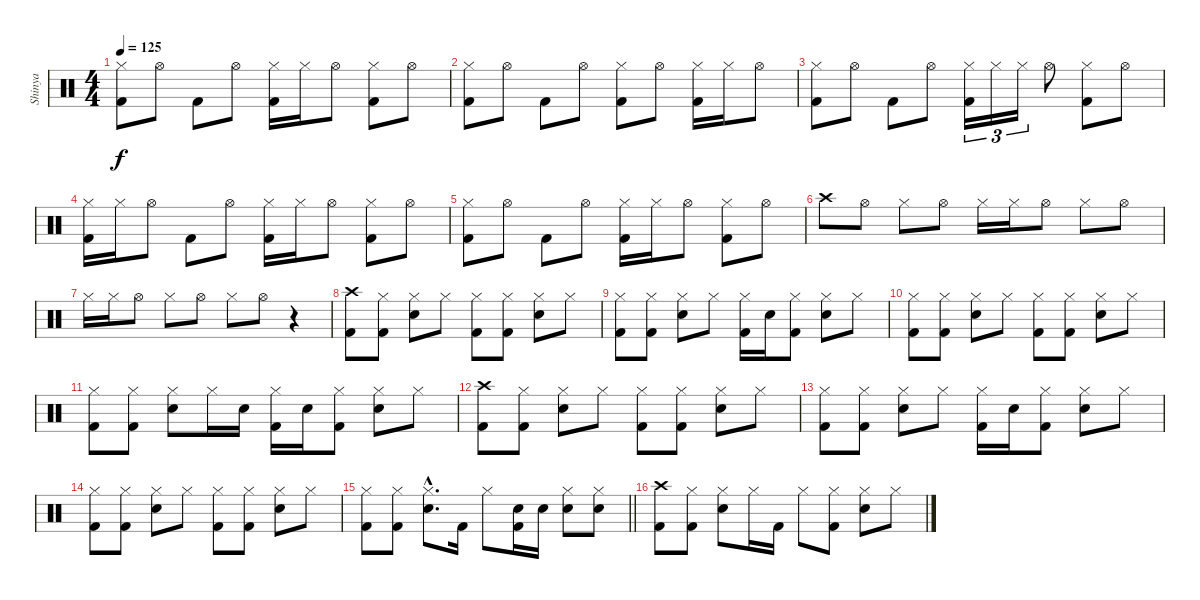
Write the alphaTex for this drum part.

\track ("Shinya" "Shinya") {instrument percussion}
\staff {score}
\articulation defaults
\ts (4 4)
\tempo 125
\clef neutral
\ks c
("Hi-Hat (closed)" "Kick (hit) 2").8{dy f} "Hi-Hat (open)".8 "Kick (hit) 2".8 "Hi-Hat (open)".8 ("Hi-Hat (closed)" "Kick (hit) 2").16 "Hi-Hat (closed)".16 "Hi-Hat (open)".8 ("Hi-Hat (closed)" "Kick (hit) 2").8 "Hi-Hat (open)".8 |
("Hi-Hat (closed)" "Kick (hit) 2").8 "Hi-Hat (open)".8 "Kick (hit) 2".8 "Hi-Hat (open)".8 ("Hi-Hat (closed)" "Kick (hit) 2").8 "Hi-Hat (open)".8 ("Hi-Hat (closed)" "Kick (hit) 2").16 "Hi-Hat (closed)".16 "Hi-Hat (open)".8 |
("Hi-Hat (closed)" "Kick (hit) 2").8 "Hi-Hat (open)".8 "Kick (hit) 2".8 "Hi-Hat (open)".8 ("Hi-Hat (closed)" "Kick (hit) 2").16{tu (3 2)} "Hi-Hat (closed)".16{tu (3 2)} "Hi-Hat (closed)".16{tu (3 2)} "Hi-Hat (open)".8 ("Hi-Hat (closed)" "Kick (hit) 2").8 "Hi-Hat (open)".8 |
("Hi-Hat (closed)" "Kick (hit) 2").16 "Hi-Hat (closed)".16 "Hi-Hat (open)".8 "Kick (hit) 2".8 "Hi-Hat (open)".8 ("Hi-Hat (closed)" "Kick (hit) 2").16 "Hi-Hat (closed)".16 "Hi-Hat (open)".8 ("Hi-Hat (closed)" "Kick (hit) 2").8 "Hi-Hat (open)".8 |
("Hi-Hat (closed)" "Kick (hit) 2").8 "Hi-Hat (open)".8 "Kick (hit) 2".8 "Hi-Hat (open)".8 ("Hi-Hat (closed)" "Kick (hit) 2").16 "Hi-Hat (closed)".16 "Hi-Hat (open)".8 ("Hi-Hat (closed)" "Kick (hit) 2").8 "Hi-Hat (open)".8 |
"Crash high (hit)".8 "Hi-Hat (open)".8 "Hi-Hat (closed)".8 "Hi-Hat (open)".8 "Hi-Hat (closed)".16 "Hi-Hat (closed)".16 "Hi-Hat (open)".8 "Hi-Hat (closed)".8 "Hi-Hat (open)".8 |
"Hi-Hat (closed)".16 "Hi-Hat (closed)".16 "Hi-Hat (open)".8 "Hi-Hat (closed)".8 "Hi-Hat (open)".8 "Hi-Hat (closed)".8 "Hi-Hat (open)".8 r.4 |
("Crash high (hit)" "Kick (hit) 2").8 ("Hi-Hat (closed)" "Kick (hit) 2").8 ("Hi-Hat (closed)" "Snare (hit) 2").8 "Hi-Hat (closed)".8 ("Hi-Hat (closed)" "Kick (hit) 2").8 ("Hi-Hat (closed)" "Kick (hit) 2").8 ("Hi-Hat (closed)" "Snare (hit) 2").8 "Hi-Hat (closed)".8 |
("Hi-Hat (closed)" "Kick (hit) 2").8 ("Hi-Hat (closed)" "Kick (hit) 2").8 ("Hi-Hat (closed)" "Snare (hit) 2").8 "Hi-Hat (closed)".8 ("Hi-Hat (closed)" "Kick (hit) 2").16 "Snare (hit) 2".16 ("Hi-Hat (closed)" "Kick (hit) 2").8 ("Hi-Hat (closed)" "Snare (hit) 2").8 "Hi-Hat (closed)".8 |
("Hi-Hat (closed)" "Kick (hit) 2").8 ("Hi-Hat (closed)" "Kick (hit) 2").8 ("Hi-Hat (closed)" "Snare (hit) 2").8 "Hi-Hat (closed)".8 ("Hi-Hat (closed)" "Kick (hit) 2").8 ("Hi-Hat (closed)" "Kick (hit) 2").8 ("Hi-Hat (closed)" "Snare (hit) 2").8 "Hi-Hat (closed)".8 |
("Hi-Hat (closed)" "Kick (hit) 2").8 ("Hi-Hat (closed)" "Kick (hit) 2").8 ("Hi-Hat (closed)" "Snare (hit) 2").8 "Hi-Hat (closed)".16 "Snare (hit) 2".16 ("Hi-Hat (closed)" "Kick (hit) 2").16 "Snare (hit) 2".16 ("Hi-Hat (closed)" "Kick (hit) 2").8 ("Hi-Hat (closed)" "Snare (hit) 2").8 "Hi-Hat (closed)".8 |
("Crash high (hit)" "Kick (hit) 2").8 ("Hi-Hat (closed)" "Kick (hit) 2").8 ("Hi-Hat (closed)" "Snare (hit) 2").8 "Hi-Hat (closed)".8 ("Hi-Hat (closed)" "Kick (hit) 2").8 ("Hi-Hat (closed)" "Kick (hit) 2").8 ("Hi-Hat (closed)" "Snare (hit) 2").8 "Hi-Hat (closed)".8 |
("Hi-Hat (closed)" "Kick (hit) 2").8 ("Hi-Hat (closed)" "Kick (hit) 2").8 ("Hi-Hat (closed)" "Snare (hit) 2").8 "Hi-Hat (closed)".8 ("Hi-Hat (closed)" "Kick (hit) 2").16 "Snare (hit) 2".16 ("Hi-Hat (closed)" "Kick (hit) 2").8 ("Hi-Hat (closed)" "Snare (hit) 2").8 "Hi-Hat (closed)".8 |
("Hi-Hat (closed)" "Kick (hit) 2").8 ("Hi-Hat (closed)" "Kick (hit) 2").8 ("Hi-Hat (closed)" "Snare (hit) 2").8 "Hi-Hat (closed)".8 ("Hi-Hat (closed)" "Kick (hit) 2").8 ("Hi-Hat (closed)" "Kick (hit) 2").8 ("Hi-Hat (closed)" "Snare (hit) 2").8 "Hi-Hat (closed)".8 |
\barLineRight lightlight
("Hi-Hat (closed)" "Kick (hit) 2").8 ("Hi-Hat (closed)" "Kick (hit) 2").8 ("Hi-Hat (closed)"{hac} "Snare (hit) 2"{hac}).8{d} "Kick (hit) 2".16 "Hi-Hat (closed)".8 ("Snare (hit) 2" "Kick (hit) 2").16 "Snare (hit) 2".16 ("Hi-Hat (closed)" "Snare (hit) 2").8 ("Hi-Hat (closed)" "Snare (hit) 2").8 |
("Kick (hit) 2" "Crash high (hit)").8 ("Hi-Hat (closed)" "Kick (hit) 2").8 ("Hi-Hat (closed)" "Snare (hit) 2").8 "Hi-Hat (closed)".16 "Kick (hit) 2".16 "Hi-Hat (closed)".8 ("Hi-Hat (closed)" "Kick (hit) 2").8 ("Hi-Hat (closed)" "Snare (hit) 2").8 "Hi-Hat (closed)".8
